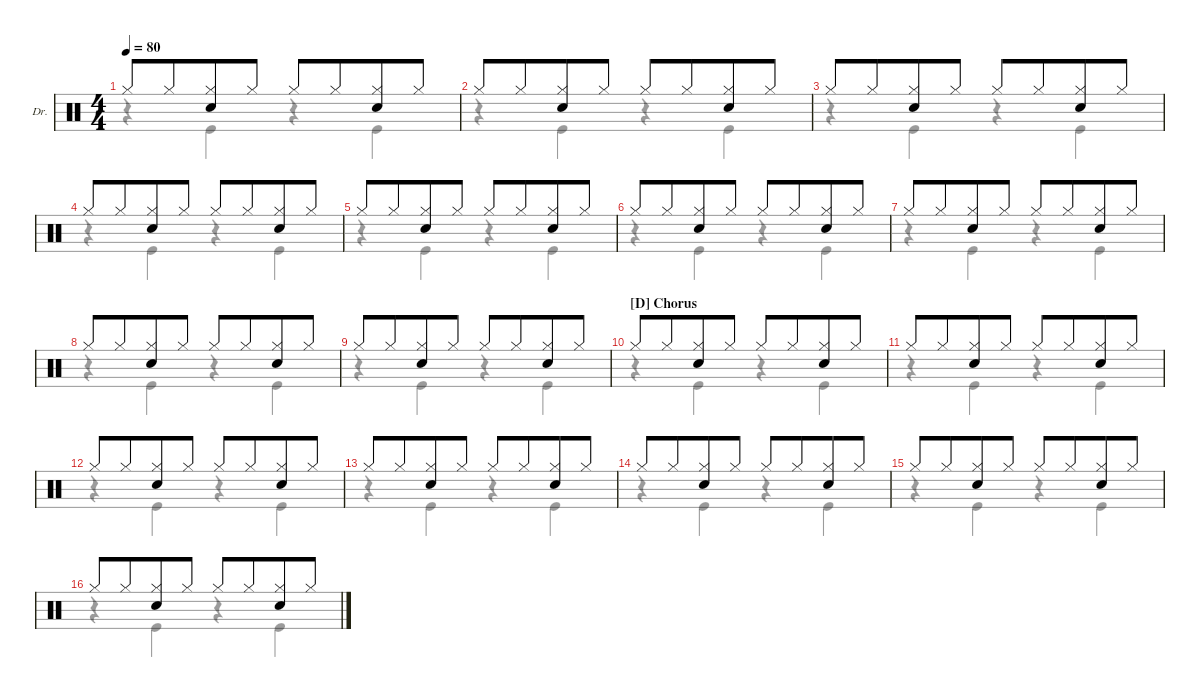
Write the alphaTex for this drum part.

\defaultSystemsLayout 4
\hideDynamics
\bracketExtendMode groupsimilarinstruments
\firstSystemTrackNameOrientation horizontal
\otherSystemsTrackNameOrientation horizontal
\track ("Drums" "Dr.") {multiBarRest instrument percussion}
\staff {score}
\articulation defaults
\voice
\ts (4 4)
\tempo 80
\clef neutral
\ks c "Hi-Hat (closed)".8{dy mf} "Hi-Hat (closed)".8{beam merge}
("Hi-Hat (closed)" "Snare (hit) 2").8 "Hi-Hat (closed)".8 "Hi-Hat (closed)".8 "Hi-Hat (closed)".8{beam merge} ("Hi-Hat (closed)" "Snare (hit) 2").8 "Hi-Hat (closed)".8 |
"Hi-Hat (closed)".8 "Hi-Hat (closed)".8{beam merge} ("Hi-Hat (closed)" "Snare (hit) 2").8 "Hi-Hat (closed)".8 "Hi-Hat (closed)".8 "Hi-Hat (closed)".8{beam merge} ("Hi-Hat (closed)" "Snare (hit) 2").8 "Hi-Hat (closed)".8 |
"Hi-Hat (closed)".8 "Hi-Hat (closed)".8{beam merge} ("Hi-Hat (closed)" "Snare (hit) 2").8 "Hi-Hat (closed)".8 "Hi-Hat (closed)".8 "Hi-Hat (closed)".8{beam merge} ("Hi-Hat (closed)" "Snare (hit) 2").8 "Hi-Hat (closed)".8 |
"Hi-Hat (closed)".8 "Hi-Hat (closed)".8{beam merge} ("Hi-Hat (closed)" "Snare (hit) 2").8 "Hi-Hat (closed)".8 "Hi-Hat (closed)".8 "Hi-Hat (closed)".8{beam merge} ("Hi-Hat (closed)" "Snare (hit) 2").8 "Hi-Hat (closed)".8 |
"Hi-Hat (closed)".8 "Hi-Hat (closed)".8{beam merge} ("Hi-Hat (closed)" "Snare (hit) 2").8 "Hi-Hat (closed)".8 "Hi-Hat (closed)".8 "Hi-Hat (closed)".8{beam merge} ("Hi-Hat (closed)" "Snare (hit) 2").8 "Hi-Hat (closed)".8 |
"Hi-Hat (closed)".8 "Hi-Hat (closed)".8{beam merge} ("Hi-Hat (closed)" "Snare (hit) 2").8 "Hi-Hat (closed)".8 "Hi-Hat (closed)".8 "Hi-Hat (closed)".8{beam merge} ("Hi-Hat (closed)" "Snare (hit) 2").8 "Hi-Hat (closed)".8 |
"Hi-Hat (closed)".8 "Hi-Hat (closed)".8{beam merge} ("Hi-Hat (closed)" "Snare (hit) 2").8 "Hi-Hat (closed)".8 "Hi-Hat (closed)".8 "Hi-Hat (closed)".8{beam merge} ("Hi-Hat (closed)" "Snare (hit) 2").8 "Hi-Hat (closed)".8 |
"Hi-Hat (closed)".8 "Hi-Hat (closed)".8{beam merge} ("Hi-Hat (closed)" "Snare (hit) 2").8 "Hi-Hat (closed)".8 "Hi-Hat (closed)".8 "Hi-Hat (closed)".8{beam merge} ("Hi-Hat (closed)" "Snare (hit) 2").8 "Hi-Hat (closed)".8 |
"Hi-Hat (closed)".8 "Hi-Hat (closed)".8{beam merge} ("Hi-Hat (closed)" "Snare (hit) 2").8 "Hi-Hat (closed)".8 "Hi-Hat (closed)".8 "Hi-Hat (closed)".8{beam merge} ("Hi-Hat (closed)" "Snare (hit) 2").8 "Hi-Hat (closed)".8 |
\section ("D" "Chorus")
"Hi-Hat (closed)".8 "Hi-Hat (closed)".8{beam merge} ("Hi-Hat (closed)" "Snare (hit) 2").8 "Hi-Hat (closed)".8 "Hi-Hat (closed)".8 "Hi-Hat (closed)".8{beam merge} ("Hi-Hat (closed)" "Snare (hit) 2").8 "Hi-Hat (closed)".8 |
"Hi-Hat (closed)".8 "Hi-Hat (closed)".8{beam merge} ("Hi-Hat (closed)" "Snare (hit) 2").8 "Hi-Hat (closed)".8 "Hi-Hat (closed)".8 "Hi-Hat (closed)".8{beam merge} ("Hi-Hat (closed)" "Snare (hit) 2").8 "Hi-Hat (closed)".8 |
"Hi-Hat (closed)".8 "Hi-Hat (closed)".8{beam merge} ("Hi-Hat (closed)" "Snare (hit) 2").8 "Hi-Hat (closed)".8 "Hi-Hat (closed)".8 "Hi-Hat (closed)".8{beam merge} ("Hi-Hat (closed)" "Snare (hit) 2").8 "Hi-Hat (closed)".8 |
"Hi-Hat (closed)".8 "Hi-Hat (closed)".8{beam merge} ("Hi-Hat (closed)" "Snare (hit) 2").8 "Hi-Hat (closed)".8 "Hi-Hat (closed)".8 "Hi-Hat (closed)".8{beam merge} ("Hi-Hat (closed)" "Snare (hit) 2").8 "Hi-Hat (closed)".8 |
"Hi-Hat (closed)".8 "Hi-Hat (closed)".8{beam merge} ("Hi-Hat (closed)" "Snare (hit) 2").8 "Hi-Hat (closed)".8 "Hi-Hat (closed)".8 "Hi-Hat (closed)".8{beam merge} ("Hi-Hat (closed)" "Snare (hit) 2").8 "Hi-Hat (closed)".8 |
"Hi-Hat (closed)".8 "Hi-Hat (closed)".8{beam merge} ("Hi-Hat (closed)" "Snare (hit) 2").8 "Hi-Hat (closed)".8 "Hi-Hat (closed)".8 "Hi-Hat (closed)".8{beam merge} ("Hi-Hat (closed)" "Snare (hit) 2").8 "Hi-Hat (closed)".8 |
"Hi-Hat (closed)".8 "Hi-Hat (closed)".8{beam merge} ("Hi-Hat (closed)" "Snare (hit) 2").8 "Hi-Hat (closed)".8 "Hi-Hat (closed)".8 "Hi-Hat (closed)".8{beam merge} ("Hi-Hat (closed)" "Snare (hit) 2").8 "Hi-Hat (closed)".8
\voice
\clef neutral
\ottava regular
\simile none
\ks c
r.4{dy mf} "Kick (hit)".4 r.4 "Kick (hit)".4 |
r.4 "Kick (hit)".4 r.4 "Kick (hit)".4 |
r.4 "Kick (hit)".4 r.4 "Kick (hit)".4 |
r.4 "Kick (hit)".4 r.4 "Kick (hit)".4 |
r.4 "Kick (hit)".4 r.4 "Kick (hit)".4 |
r.4 "Kick (hit)".4 r.4 "Kick (hit)".4 |
r.4 "Kick (hit)".4 r.4 "Kick (hit)".4 |
r.4 "Kick (hit)".4 r.4 "Kick (hit)".4 |
r.4 "Kick (hit)".4 r.4 "Kick (hit)".4 |
r.4 "Kick (hit)".4 r.4 "Kick (hit)".4 |
r.4 "Kick (hit)".4 r.4 "Kick (hit)".4 |
r.4 "Kick (hit)".4 r.4 "Kick (hit)".4 |
r.4 "Kick (hit)".4 r.4 "Kick (hit)".4 |
r.4 "Kick (hit)".4 r.4 "Kick (hit)".4 |
r.4 "Kick (hit)".4 r.4 "Kick (hit)".4 |
r.4 "Kick (hit)".4 r.4 "Kick (hit)".4
